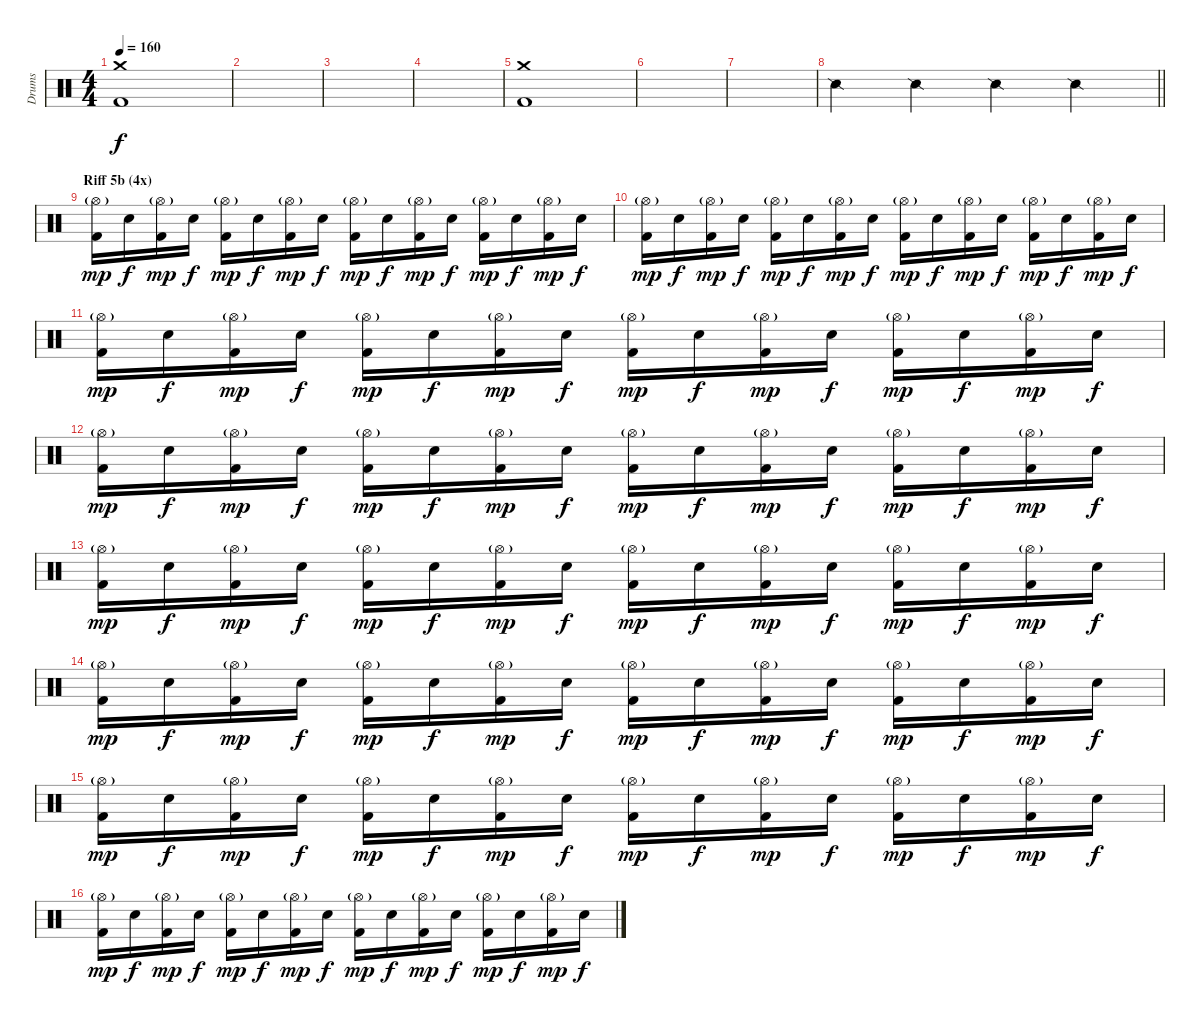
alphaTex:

\track ("Drums" "Drums") {instrument percussion}
\staff {score}
\articulation defaults
\ts (4 4)
\tempo 160
\clef neutral
\ks c
("Crash medium (hit)" "Kick (hit) 2").1{dy f} |
|
|
|
("Crash medium (hit)" "Kick (hit) 2").1 |
|
|
\barLineRight lightlight "Snare (side stick) 2".4 "Snare (side stick) 2".4 "Snare (side stick) 2".4 "Snare (side stick) 2".4
|
\section ("" "Riff 5b (4x)")
("Hi-Hat (open)"{g} "Kick (hit) 2").16{dy mp} "Electric Snare (hit)".16{dy f} ("Hi-Hat (open)"{g} "Kick (hit) 2").16{dy mp} "Electric Snare (hit)".16{dy f} ("Hi-Hat (open)"{g} "Kick (hit) 2").16{dy mp} "Electric Snare (hit)".16{dy f} ("Hi-Hat (open)"{g} "Kick (hit) 2").16{dy mp} "Electric Snare (hit)".16{dy f} ("Hi-Hat (open)"{g} "Kick (hit) 2").16{dy mp} "Electric Snare (hit)".16{dy f} ("Hi-Hat (open)"{g} "Kick (hit) 2").16{dy mp} "Electric Snare (hit)".16{dy f} ("Hi-Hat (open)"{g} "Kick (hit) 2").16{dy mp} "Electric Snare (hit)".16{dy f} ("Hi-Hat (open)"{g} "Kick (hit) 2").16{dy mp} "Electric Snare (hit)".16{dy f} |
("Hi-Hat (open)"{g} "Kick (hit) 2").16{dy mp} "Electric Snare (hit)".16{dy f} ("Hi-Hat (open)"{g} "Kick (hit) 2").16{dy mp} "Electric Snare (hit)".16{dy f} ("Hi-Hat (open)"{g} "Kick (hit) 2").16{dy mp} "Electric Snare (hit)".16{dy f} ("Hi-Hat (open)"{g} "Kick (hit) 2").16{dy mp} "Electric Snare (hit)".16{dy f} ("Hi-Hat (open)"{g} "Kick (hit) 2").16{dy mp} "Electric Snare (hit)".16{dy f} ("Hi-Hat (open)"{g} "Kick (hit) 2").16{dy mp} "Electric Snare (hit)".16{dy f} ("Hi-Hat (open)"{g} "Kick (hit) 2").16{dy mp} "Electric Snare (hit)".16{dy f} ("Hi-Hat (open)"{g} "Kick (hit) 2").16{dy mp} "Electric Snare (hit)".16{dy f} |
("Hi-Hat (open)"{g} "Kick (hit) 2").16{dy mp} "Electric Snare (hit)".16{dy f} ("Hi-Hat (open)"{g} "Kick (hit) 2").16{dy mp} "Electric Snare (hit)".16{dy f} ("Hi-Hat (open)"{g} "Kick (hit) 2").16{dy mp} "Electric Snare (hit)".16{dy f} ("Hi-Hat (open)"{g} "Kick (hit) 2").16{dy mp} "Electric Snare (hit)".16{dy f} ("Hi-Hat (open)"{g} "Kick (hit) 2").16{dy mp} "Electric Snare (hit)".16{dy f} ("Hi-Hat (open)"{g} "Kick (hit) 2").16{dy mp} "Electric Snare (hit)".16{dy f} ("Hi-Hat (open)"{g} "Kick (hit) 2").16{dy mp} "Electric Snare (hit)".16{dy f} ("Hi-Hat (open)"{g} "Kick (hit) 2").16{dy mp} "Electric Snare (hit)".16{dy f} |
("Hi-Hat (open)"{g} "Kick (hit) 2").16{dy mp} "Electric Snare (hit)".16{dy f} ("Hi-Hat (open)"{g} "Kick (hit) 2").16{dy mp} "Electric Snare (hit)".16{dy f} ("Hi-Hat (open)"{g} "Kick (hit) 2").16{dy mp} "Electric Snare (hit)".16{dy f} ("Hi-Hat (open)"{g} "Kick (hit) 2").16{dy mp} "Electric Snare (hit)".16{dy f} ("Hi-Hat (open)"{g} "Kick (hit) 2").16{dy mp} "Electric Snare (hit)".16{dy f} ("Hi-Hat (open)"{g} "Kick (hit) 2").16{dy mp} "Electric Snare (hit)".16{dy f} ("Hi-Hat (open)"{g} "Kick (hit) 2").16{dy mp} "Electric Snare (hit)".16{dy f} ("Hi-Hat (open)"{g} "Kick (hit) 2").16{dy mp} "Electric Snare (hit)".16{dy f} |
("Hi-Hat (open)"{g} "Kick (hit) 2").16{dy mp} "Electric Snare (hit)".16{dy f} ("Hi-Hat (open)"{g} "Kick (hit) 2").16{dy mp} "Electric Snare (hit)".16{dy f} ("Hi-Hat (open)"{g} "Kick (hit) 2").16{dy mp} "Electric Snare (hit)".16{dy f} ("Hi-Hat (open)"{g} "Kick (hit) 2").16{dy mp} "Electric Snare (hit)".16{dy f} ("Hi-Hat (open)"{g} "Kick (hit) 2").16{dy mp} "Electric Snare (hit)".16{dy f} ("Hi-Hat (open)"{g} "Kick (hit) 2").16{dy mp} "Electric Snare (hit)".16{dy f} ("Hi-Hat (open)"{g} "Kick (hit) 2").16{dy mp} "Electric Snare (hit)".16{dy f} ("Hi-Hat (open)"{g} "Kick (hit) 2").16{dy mp} "Electric Snare (hit)".16{dy f} |
("Hi-Hat (open)"{g} "Kick (hit) 2").16{dy mp} "Electric Snare (hit)".16{dy f} ("Hi-Hat (open)"{g} "Kick (hit) 2").16{dy mp} "Electric Snare (hit)".16{dy f} ("Hi-Hat (open)"{g} "Kick (hit) 2").16{dy mp} "Electric Snare (hit)".16{dy f} ("Hi-Hat (open)"{g} "Kick (hit) 2").16{dy mp} "Electric Snare (hit)".16{dy f} ("Hi-Hat (open)"{g} "Kick (hit) 2").16{dy mp} "Electric Snare (hit)".16{dy f} ("Hi-Hat (open)"{g} "Kick (hit) 2").16{dy mp} "Electric Snare (hit)".16{dy f} ("Hi-Hat (open)"{g} "Kick (hit) 2").16{dy mp} "Electric Snare (hit)".16{dy f} ("Hi-Hat (open)"{g} "Kick (hit) 2").16{dy mp} "Electric Snare (hit)".16{dy f} |
("Hi-Hat (open)"{g} "Kick (hit) 2").16{dy mp} "Electric Snare (hit)".16{dy f} ("Hi-Hat (open)"{g} "Kick (hit) 2").16{dy mp} "Electric Snare (hit)".16{dy f} ("Hi-Hat (open)"{g} "Kick (hit) 2").16{dy mp} "Electric Snare (hit)".16{dy f} ("Hi-Hat (open)"{g} "Kick (hit) 2").16{dy mp} "Electric Snare (hit)".16{dy f} ("Hi-Hat (open)"{g} "Kick (hit) 2").16{dy mp} "Electric Snare (hit)".16{dy f} ("Hi-Hat (open)"{g} "Kick (hit) 2").16{dy mp} "Electric Snare (hit)".16{dy f} ("Hi-Hat (open)"{g} "Kick (hit) 2").16{dy mp} "Electric Snare (hit)".16{dy f} ("Hi-Hat (open)"{g} "Kick (hit) 2").16{dy mp} "Electric Snare (hit)".16{dy f} |
("Hi-Hat (open)"{g} "Kick (hit) 2").16{dy mp} "Electric Snare (hit)".16{dy f} ("Hi-Hat (open)"{g} "Kick (hit) 2").16{dy mp} "Electric Snare (hit)".16{dy f} ("Hi-Hat (open)"{g} "Kick (hit) 2").16{dy mp} "Electric Snare (hit)".16{dy f} ("Hi-Hat (open)"{g} "Kick (hit) 2").16{dy mp} "Electric Snare (hit)".16{dy f} ("Hi-Hat (open)"{g} "Kick (hit) 2").16{dy mp} "Electric Snare (hit)".16{dy f} ("Hi-Hat (open)"{g} "Kick (hit) 2").16{dy mp} "Electric Snare (hit)".16{dy f} ("Hi-Hat (open)"{g} "Kick (hit) 2").16{dy mp} "Electric Snare (hit)".16{dy f} ("Hi-Hat (open)"{g} "Kick (hit) 2").16{dy mp} "Electric Snare (hit)".16{dy f}
